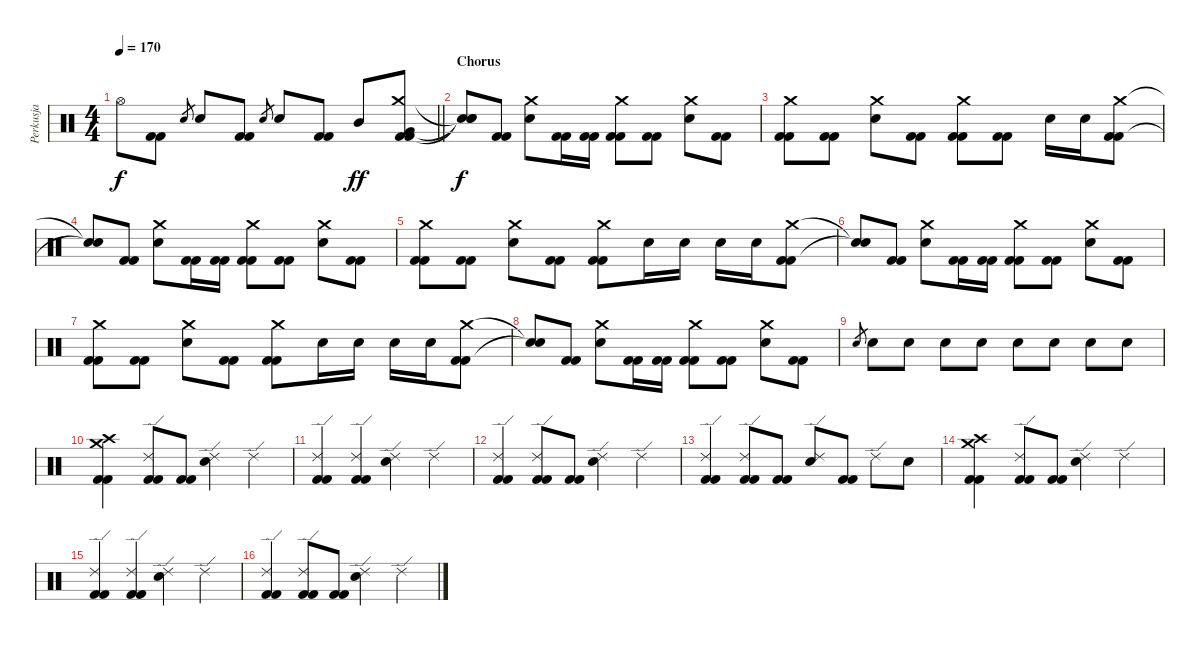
\track ("Perkusja" "Perkusja") {instrument percussion}
\staff {score}
\articulation defaults
\ts (4 4)
\tempo 170
\clef neutral
\barLineRight lightlight
\ks c "Hi-Hat (open)".8{dy f}
("Kick (hit) 2" "Kick (hit) 2").8 "Electric Snare (hit)".8{gr} "Electric Snare (hit)".8 ("Kick (hit) 2" "Kick (hit) 2").8 "Electric Snare (hit)".8{gr} "Electric Snare (hit)".8 ("Kick (hit) 2" "Kick (hit) 2").8 "Mid Tom (hit)".8{dy ff} ("Crash medium (hit)" "Very Low Tom (hit)" "Kick (hit) 2" "Kick (hit) 2").8 |
\section ("" "Chorus")
("Snare (hit)"{t} "Snare (hit)"{t} "Snare (hit)"{t}).8{dy f} ("Kick (hit) 2" "Kick (hit) 2").8 ("Crash medium (hit)" "Electric Snare (hit)").8 ("Kick (hit) 2" "Kick (hit) 2").16 ("Kick (hit) 2" "Kick (hit) 2").16 ("Crash medium (hit)" "Kick (hit) 2" "Kick (hit) 2").8 ("Kick (hit) 2" "Kick (hit) 2").8 ("Crash medium (hit)" "Electric Snare (hit)").8 ("Kick (hit) 2" "Kick (hit) 2").8 |
("Crash medium (hit)" "Kick (hit) 2" "Kick (hit) 2").8 ("Kick (hit) 2" "Kick (hit) 2").8 ("Crash medium (hit)" "Electric Snare (hit)").8 ("Kick (hit) 2" "Kick (hit) 2").8 ("Crash medium (hit)" "Kick (hit) 2" "Kick (hit) 2").8 ("Kick (hit) 2" "Kick (hit) 2").8 "Electric Snare (hit)".16 "Electric Snare (hit)".16 ("Crash medium (hit)" "Kick (hit) 2" "Kick (hit) 2").8 |
("Snare (hit)"{t} "Snare (hit)"{t}).8 ("Kick (hit) 2" "Kick (hit) 2").8 ("Crash medium (hit)" "Electric Snare (hit)").8 ("Kick (hit) 2" "Kick (hit) 2").16 ("Kick (hit) 2" "Kick (hit) 2").16 ("Crash medium (hit)" "Kick (hit) 2" "Kick (hit) 2").8 ("Kick (hit) 2" "Kick (hit) 2").8 ("Crash medium (hit)" "Electric Snare (hit)").8 ("Kick (hit) 2" "Kick (hit) 2").8 |
("Crash medium (hit)" "Kick (hit) 2" "Kick (hit) 2").8 ("Kick (hit) 2" "Kick (hit) 2").8 ("Crash medium (hit)" "Electric Snare (hit)").8 ("Kick (hit) 2" "Kick (hit) 2").8 ("Crash medium (hit)" "Kick (hit) 2" "Kick (hit) 2").8 "Electric Snare (hit)".16 "Electric Snare (hit)".16 "Electric Snare (hit)".16 "Electric Snare (hit)".16 ("Crash medium (hit)" "Kick (hit) 2" "Kick (hit) 2").8 |
("Snare (hit)"{t} "Snare (hit)"{t}).8 ("Kick (hit) 2" "Kick (hit) 2").8 ("Crash medium (hit)" "Electric Snare (hit)").8 ("Kick (hit) 2" "Kick (hit) 2").16 ("Kick (hit) 2" "Kick (hit) 2").16 ("Crash medium (hit)" "Kick (hit) 2" "Kick (hit) 2").8 ("Kick (hit) 2" "Kick (hit) 2").8 ("Crash medium (hit)" "Electric Snare (hit)").8 ("Kick (hit) 2" "Kick (hit) 2").8 |
("Crash medium (hit)" "Kick (hit) 2" "Kick (hit) 2").8 ("Kick (hit) 2" "Kick (hit) 2").8 ("Crash medium (hit)" "Electric Snare (hit)").8 ("Kick (hit) 2" "Kick (hit) 2").8 ("Crash medium (hit)" "Kick (hit) 2" "Kick (hit) 2").8 "Electric Snare (hit)".16 "Electric Snare (hit)".16 "Electric Snare (hit)".16 "Electric Snare (hit)".16 ("Crash medium (hit)" "Kick (hit) 2" "Kick (hit) 2").8 |
("Snare (hit)"{t} "Snare (hit)"{t}).8 ("Kick (hit) 2" "Kick (hit) 2").8 ("Crash medium (hit)" "Electric Snare (hit)").8 ("Kick (hit) 2" "Kick (hit) 2").16 ("Kick (hit) 2" "Kick (hit) 2").16 ("Crash medium (hit)" "Kick (hit) 2" "Kick (hit) 2").8 ("Kick (hit) 2" "Kick (hit) 2").8 ("Crash medium (hit)" "Electric Snare (hit)").8 ("Kick (hit) 2" "Kick (hit) 2").8 |
"Electric Snare (hit)".8{gr} "Electric Snare (hit)".8 "Electric Snare (hit)".8 "Electric Snare (hit)".8 "Electric Snare (hit)".8 "Electric Snare (hit)".8 "Electric Snare (hit)".8 "Electric Snare (hit)".8 "Electric Snare (hit)".8 |
("Crash high (hit)" "Crash medium (hit)" "Kick (hit) 2" "Kick (hit) 2").4 ("Ride (edge) 2" "Kick (hit) 2" "Kick (hit) 2").8 ("Kick (hit) 2" "Kick (hit) 2").8 ("Ride (edge) 2" "Electric Snare (hit)").4 "Ride (edge) 2".4 |
("Ride (edge) 2" "Kick (hit) 2" "Kick (hit) 2").4 ("Ride (edge) 2" "Kick (hit) 2" "Kick (hit) 2").4 ("Ride (edge) 2" "Electric Snare (hit)").4 "Ride (edge) 2".4 |
("Ride (edge) 2" "Kick (hit) 2" "Kick (hit) 2").4 ("Ride (edge) 2" "Kick (hit) 2" "Kick (hit) 2").8 ("Kick (hit) 2" "Kick (hit) 2").8 ("Ride (edge) 2" "Electric Snare (hit)").4 "Ride (edge) 2".4 |
("Ride (edge) 2" "Kick (hit) 2" "Kick (hit) 2").4 ("Ride (edge) 2" "Kick (hit) 2" "Kick (hit) 2").8 ("Kick (hit) 2" "Kick (hit) 2").8 ("Ride (edge) 2" "Electric Snare (hit)").8 ("Kick (hit) 2" "Kick (hit) 2").8 "Ride (edge) 2".8 "Electric Snare (hit)".8 |
("Crash high (hit)" "Crash medium (hit)" "Kick (hit) 2" "Kick (hit) 2").4 ("Ride (edge) 2" "Kick (hit) 2" "Kick (hit) 2").8 ("Kick (hit) 2" "Kick (hit) 2").8 ("Ride (edge) 2" "Electric Snare (hit)").4 "Ride (edge) 2".4 |
("Ride (edge) 2" "Kick (hit) 2" "Kick (hit) 2").4 ("Ride (edge) 2" "Kick (hit) 2" "Kick (hit) 2").4 ("Ride (edge) 2" "Electric Snare (hit)").4 "Ride (edge) 2".4 |
("Ride (edge) 2" "Kick (hit) 2" "Kick (hit) 2").4 ("Ride (edge) 2" "Kick (hit) 2" "Kick (hit) 2").8 ("Kick (hit) 2" "Kick (hit) 2").8 ("Ride (edge) 2" "Electric Snare (hit)").4 "Ride (edge) 2".4
